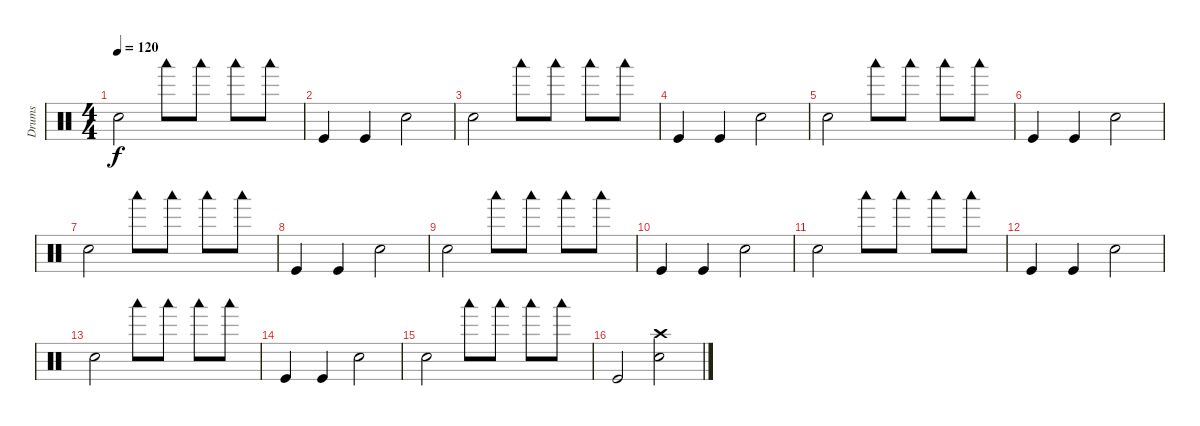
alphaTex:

\track ("Drums" "Drums") {instrument percussion}
\staff {score}
\articulation defaults
\ts (4 4)
\tempo 120
\clef neutral
\ks c "Snare (hit) 2".2{dy f} "Woodblock low (hit)".8 "Woodblock low (hit)".8 "Woodblock low (hit)".8 "Woodblock low (hit)".8
|
"Kick (hit)".4 "Kick (hit)".4 "Snare (hit) 2".2 |
"Snare (hit) 2".2 "Woodblock low (hit)".8 "Woodblock low (hit)".8 "Woodblock low (hit)".8 "Woodblock low (hit)".8 |
"Kick (hit)".4 "Kick (hit)".4 "Snare (hit) 2".2 |
"Snare (hit) 2".2 "Woodblock low (hit)".8 "Woodblock low (hit)".8 "Woodblock low (hit)".8 "Woodblock low (hit)".8 |
"Kick (hit)".4 "Kick (hit)".4 "Snare (hit) 2".2 |
"Snare (hit) 2".2 "Woodblock low (hit)".8 "Woodblock low (hit)".8 "Woodblock low (hit)".8 "Woodblock low (hit)".8 |
"Kick (hit)".4 "Kick (hit)".4 "Snare (hit) 2".2 |
"Snare (hit) 2".2 "Woodblock low (hit)".8 "Woodblock low (hit)".8 "Woodblock low (hit)".8 "Woodblock low (hit)".8 |
"Kick (hit)".4 "Kick (hit)".4 "Snare (hit) 2".2 |
"Snare (hit) 2".2 "Woodblock low (hit)".8 "Woodblock low (hit)".8 "Woodblock low (hit)".8 "Woodblock low (hit)".8 |
"Kick (hit)".4 "Kick (hit)".4 "Snare (hit) 2".2 |
"Snare (hit) 2".2 "Woodblock low (hit)".8 "Woodblock low (hit)".8 "Woodblock low (hit)".8 "Woodblock low (hit)".8 |
"Kick (hit)".4 "Kick (hit)".4 "Snare (hit) 2".2 |
"Snare (hit) 2".2 "Woodblock low (hit)".8 "Woodblock low (hit)".8 "Woodblock low (hit)".8 "Woodblock low (hit)".8 |
"Kick (hit)".2 ("Electric Snare (hit)" "Crash high (hit)").2
